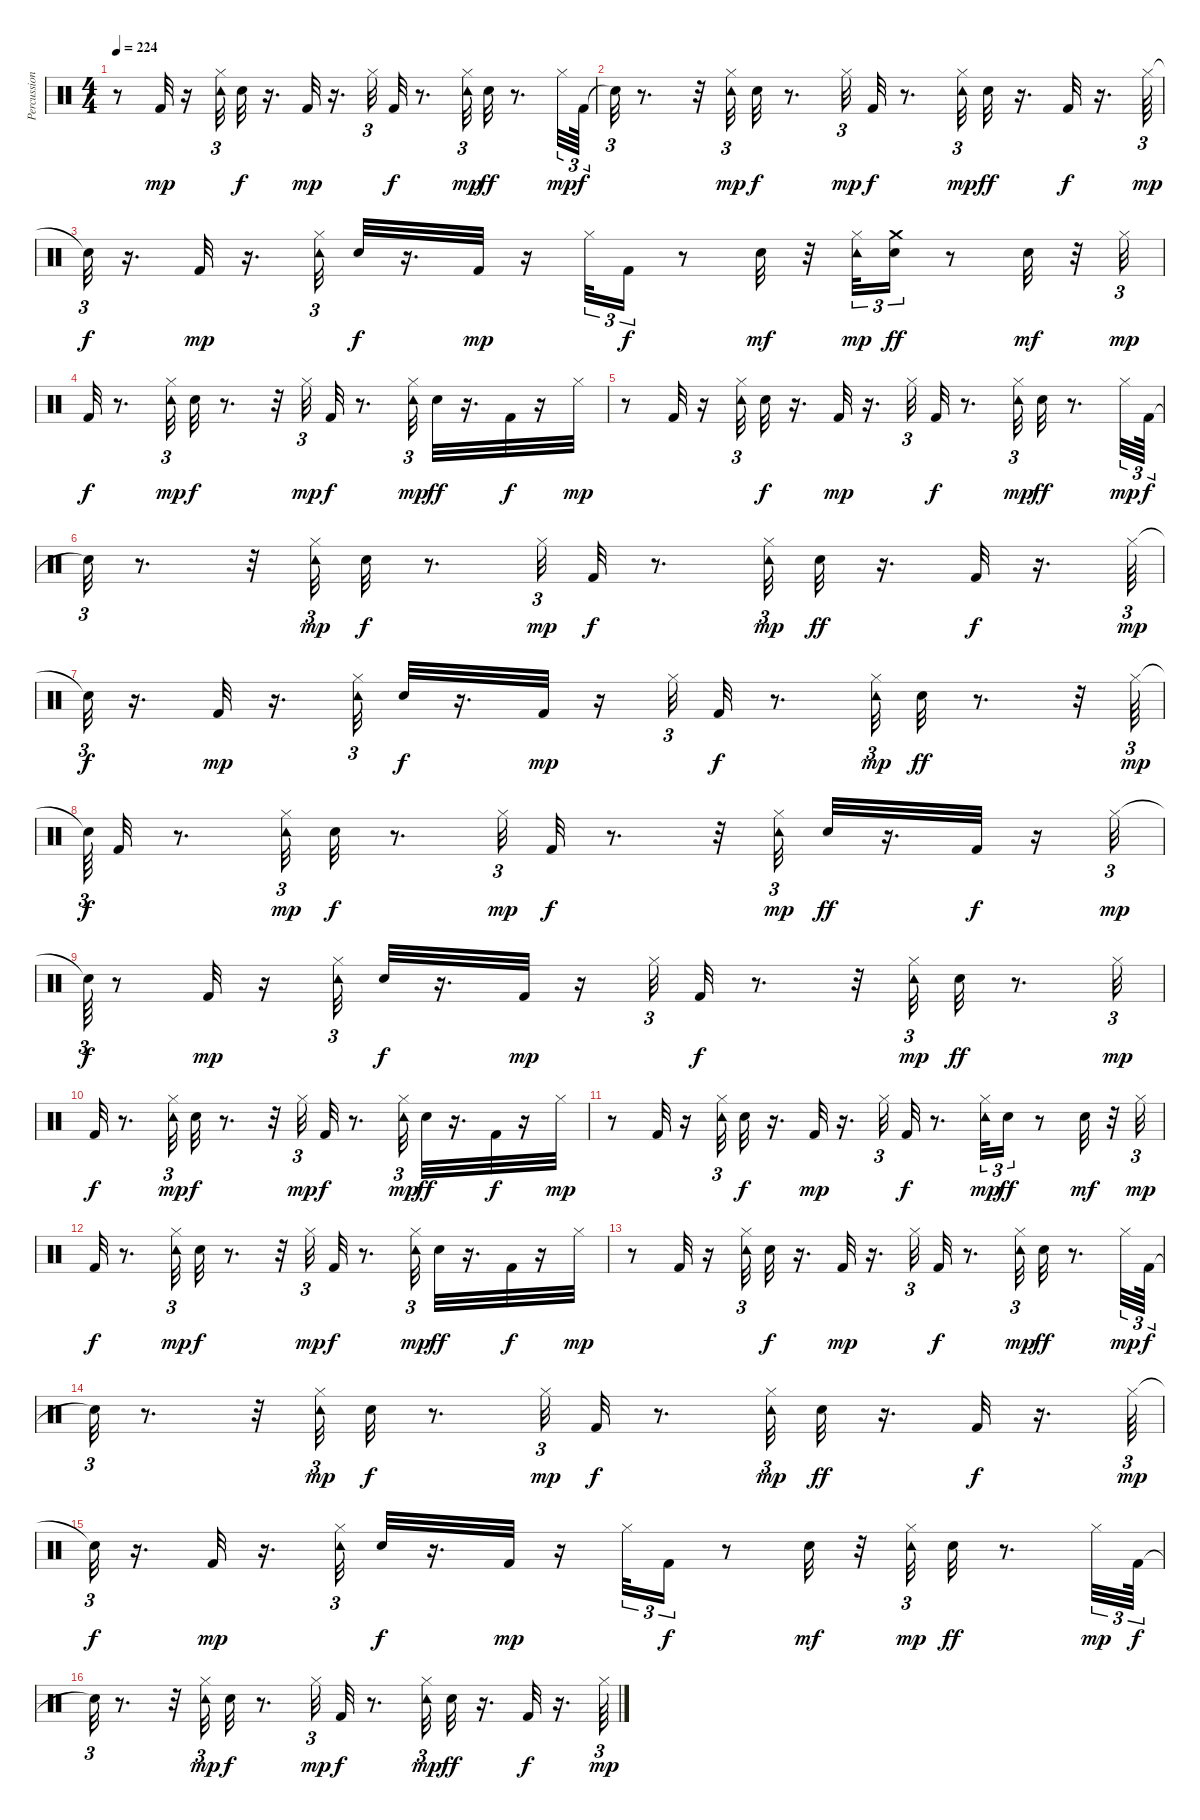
\track ("Percussion" "Percussion") {instrument percussion}
\staff {score}
\articulation defaults
\ts (4 4)
\tempo 224
\clef neutral
\ks c
r.8{dy mp} "Kick (hit) 2".32 r.16 ("Tambourine (hit)" "Hi-Hat (closed)").32{tu (3 2)} "Snare (hit) 2".32{dy f} r.16{d} "Kick (hit) 2".32{dy mp} r.16{d} "Hi-Hat (closed)".32{tu (3 2)} "Kick (hit) 2".32{dy f} r.8{d} ("Tambourine (hit)" "Hi-Hat (closed)").32{tu (3 2) dy mp} "Snare (hit) 2".32{dy ff} r.8{d} "Hi-Hat (closed)".32{tu (3 2) dy mp} "Kick (hit) 2".64{tu (3 2) dy f} |
"Snare (hit)"{t}.32{tu (3 2)} r.8{d} r.32 ("Tambourine (hit)" "Hi-Hat (closed)").32{tu (3 2) dy mp} "Snare (hit) 2".32{dy f} r.8{d} "Hi-Hat (closed)".32{tu (3 2) dy mp} "Kick (hit) 2".32{dy f} r.8{d} ("Tambourine (hit)" "Hi-Hat (closed)").32{tu (3 2) dy mp} "Snare (hit) 2".32{dy ff} r.16{d} "Kick (hit) 2".32{dy f} r.16{d} "Hi-Hat (closed)".64{tu (3 2) dy mp} |
"Snare (hit)"{t}.32{tu (3 2) dy f} r.16{d} "Kick (hit) 2".32{dy mp} r.16{d} ("Tambourine (hit)" "Hi-Hat (closed)").32{tu (3 2)} "Snare (hit) 2".32{dy f} r.16{d} "Kick (hit) 2".32{dy mp} r.16 "Hi-Hat (closed)".32{tu (3 2)} "Kick (hit) 2".16{tu (3 2) dy f} r.8 "Snare (hit) 2".32{dy mf} r.32 ("Tambourine (hit)" "Hi-Hat (closed)").32{tu (3 2) dy mp} ("Snare (hit) 2" "Crash medium (hit)").16{tu (3 2) dy ff} r.8 "Snare (hit) 2".32{dy mf} r.32 "Hi-Hat (closed)".32{tu (3 2) dy mp} |
"Kick (hit) 2".32{dy f} r.8{d} ("Tambourine (hit)" "Hi-Hat (closed)").32{tu (3 2) dy mp} "Snare (hit) 2".32{dy f} r.8{d} r.32 "Hi-Hat (closed)".32{tu (3 2) dy mp} "Kick (hit) 2".32{dy f} r.8{d} ("Tambourine (hit)" "Hi-Hat (closed)").32{tu (3 2) dy mp} "Snare (hit) 2".32{dy ff} r.16{d} "Kick (hit) 2".32{dy f} r.16 "Hi-Hat (closed)".32{dy mp} |
r.8 "Kick (hit) 2".32 r.16 ("Tambourine (hit)" "Hi-Hat (closed)").32{tu (3 2)} "Snare (hit) 2".32{dy f} r.16{d} "Kick (hit) 2".32{dy mp} r.16{d} "Hi-Hat (closed)".32{tu (3 2)} "Kick (hit) 2".32{dy f} r.8{d} ("Tambourine (hit)" "Hi-Hat (closed)").32{tu (3 2) dy mp} "Snare (hit) 2".32{dy ff} r.8{d} "Hi-Hat (closed)".32{tu (3 2) dy mp} "Kick (hit) 2".64{tu (3 2) dy f} |
"Snare (hit)"{t}.32{tu (3 2)} r.8{d} r.32 ("Tambourine (hit)" "Hi-Hat (closed)").32{tu (3 2) dy mp} "Snare (hit) 2".32{dy f} r.8{d} "Hi-Hat (closed)".32{tu (3 2) dy mp} "Kick (hit) 2".32{dy f} r.8{d} ("Tambourine (hit)" "Hi-Hat (closed)").32{tu (3 2) dy mp} "Snare (hit) 2".32{dy ff} r.16{d} "Kick (hit) 2".32{dy f} r.16{d} "Hi-Hat (closed)".64{tu (3 2) dy mp} |
"Snare (hit)"{t}.32{tu (3 2) dy f} r.16{d} "Kick (hit) 2".32{dy mp} r.16{d} ("Tambourine (hit)" "Hi-Hat (closed)").32{tu (3 2)} "Snare (hit) 2".32{dy f} r.16{d} "Kick (hit) 2".32{dy mp} r.16 "Hi-Hat (closed)".32{tu (3 2)} "Kick (hit) 2".32{dy f} r.8{d} ("Tambourine (hit)" "Hi-Hat (closed)").32{tu (3 2) dy mp} "Snare (hit) 2".32{dy ff} r.8{d} r.32 "Hi-Hat (closed)".64{tu (3 2) dy mp} |
"Snare (hit)"{t}.64{tu (3 2) dy f} "Kick (hit) 2".32 r.8{d} ("Tambourine (hit)" "Hi-Hat (closed)").32{tu (3 2) dy mp} "Snare (hit) 2".32{dy f} r.8{d} "Hi-Hat (closed)".32{tu (3 2) dy mp} "Kick (hit) 2".32{dy f} r.8{d} r.32 ("Tambourine (hit)" "Hi-Hat (closed)").32{tu (3 2) dy mp} "Snare (hit) 2".32{dy ff} r.16{d} "Kick (hit) 2".32{dy f} r.16 "Hi-Hat (closed)".32{tu (3 2) dy mp} |
"Snare (hit)"{t}.64{tu (3 2) dy f} r.8 "Kick (hit) 2".32{dy mp} r.16 ("Tambourine (hit)" "Hi-Hat (closed)").32{tu (3 2)} "Snare (hit) 2".32{dy f} r.16{d} "Kick (hit) 2".32{dy mp} r.16 "Hi-Hat (closed)".32{tu (3 2)} "Kick (hit) 2".32{dy f} r.8{d} r.32 ("Tambourine (hit)" "Hi-Hat (closed)").32{tu (3 2) dy mp} "Snare (hit) 2".32{dy ff} r.8{d} "Hi-Hat (closed)".32{tu (3 2) dy mp} |
"Kick (hit) 2".32{dy f} r.8{d} ("Tambourine (hit)" "Hi-Hat (closed)").32{tu (3 2) dy mp} "Snare (hit) 2".32{dy f} r.8{d} r.32 "Hi-Hat (closed)".32{tu (3 2) dy mp} "Kick (hit) 2".32{dy f} r.8{d} ("Tambourine (hit)" "Hi-Hat (closed)").32{tu (3 2) dy mp} "Snare (hit) 2".32{dy ff} r.16{d} "Kick (hit) 2".32{dy f} r.16 "Hi-Hat (closed)".32{dy mp} |
r.8 "Kick (hit) 2".32 r.16 ("Tambourine (hit)" "Hi-Hat (closed)").32{tu (3 2)} "Snare (hit) 2".32{dy f} r.16{d} "Kick (hit) 2".32{dy mp} r.16{d} "Hi-Hat (closed)".32{tu (3 2)} "Kick (hit) 2".32{dy f} r.8{d} ("Tambourine (hit)" "Hi-Hat (closed)").32{tu (3 2) dy mp} "Snare (hit) 2".16{tu (3 2) dy ff} r.8 "Snare (hit) 2".32{dy mf} r.32 "Hi-Hat (closed)".32{tu (3 2) dy mp} |
"Kick (hit) 2".32{dy f} r.8{d} ("Tambourine (hit)" "Hi-Hat (closed)").32{tu (3 2) dy mp} "Snare (hit) 2".32{dy f} r.8{d} r.32 "Hi-Hat (closed)".32{tu (3 2) dy mp} "Kick (hit) 2".32{dy f} r.8{d} ("Tambourine (hit)" "Hi-Hat (closed)").32{tu (3 2) dy mp} "Snare (hit) 2".32{dy ff} r.16{d} "Kick (hit) 2".32{dy f} r.16 "Hi-Hat (closed)".32{dy mp} |
r.8 "Kick (hit) 2".32 r.16 ("Tambourine (hit)" "Hi-Hat (closed)").32{tu (3 2)} "Snare (hit) 2".32{dy f} r.16{d} "Kick (hit) 2".32{dy mp} r.16{d} "Hi-Hat (closed)".32{tu (3 2)} "Kick (hit) 2".32{dy f} r.8{d} ("Tambourine (hit)" "Hi-Hat (closed)").32{tu (3 2) dy mp} "Snare (hit) 2".32{dy ff} r.8{d} "Hi-Hat (closed)".32{tu (3 2) dy mp} "Kick (hit) 2".64{tu (3 2) dy f} |
"Snare (hit)"{t}.32{tu (3 2)} r.8{d} r.32 ("Tambourine (hit)" "Hi-Hat (closed)").32{tu (3 2) dy mp} "Snare (hit) 2".32{dy f} r.8{d} "Hi-Hat (closed)".32{tu (3 2) dy mp} "Kick (hit) 2".32{dy f} r.8{d} ("Tambourine (hit)" "Hi-Hat (closed)").32{tu (3 2) dy mp} "Snare (hit) 2".32{dy ff} r.16{d} "Kick (hit) 2".32{dy f} r.16{d} "Hi-Hat (closed)".64{tu (3 2) dy mp} |
"Snare (hit)"{t}.32{tu (3 2) dy f} r.16{d} "Kick (hit) 2".32{dy mp} r.16{d} ("Tambourine (hit)" "Hi-Hat (closed)").32{tu (3 2)} "Snare (hit) 2".32{dy f} r.16{d} "Kick (hit) 2".32{dy mp} r.16 "Hi-Hat (closed)".32{tu (3 2)} "Kick (hit) 2".16{tu (3 2) dy f} r.8 "Snare (hit) 2".32{dy mf} r.32 ("Tambourine (hit)" "Hi-Hat (closed)").32{tu (3 2) dy mp} "Snare (hit) 2".32{dy ff} r.8{d} "Hi-Hat (closed)".32{tu (3 2) dy mp} "Kick (hit) 2".64{tu (3 2) dy f} |
"Snare (hit)"{t}.32{tu (3 2)} r.8{d} r.32 ("Tambourine (hit)" "Hi-Hat (closed)").32{tu (3 2) dy mp} "Snare (hit) 2".32{dy f} r.8{d} "Hi-Hat (closed)".32{tu (3 2) dy mp} "Kick (hit) 2".32{dy f} r.8{d} ("Tambourine (hit)" "Hi-Hat (closed)").32{tu (3 2) dy mp} "Snare (hit) 2".32{dy ff} r.16{d} "Kick (hit) 2".32{dy f} r.16{d} "Hi-Hat (closed)".64{tu (3 2) dy mp}
